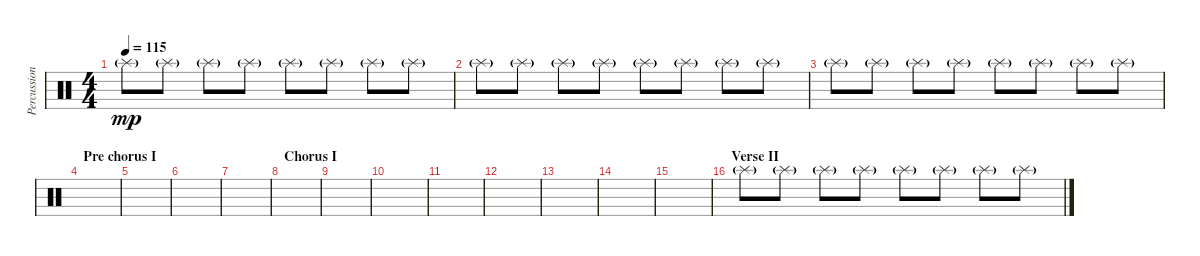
\track ("Percussion - Splash Cymbal" "Percussion") {instrument percussion}
\staff {score}
\articulation defaults
\ts (4 4)
\tempo 115
\clef neutral
\ks c "Splash (hit)"{g}.8{dy mp} "Splash (hit)"{g}.8 "Splash (hit)"{g}.8 "Splash (hit)"{g}.8 "Splash (hit)"{g}.8 "Splash (hit)"{g}.8 "Splash (hit)"{g}.8 "Splash (hit)"{g}.8
|
"Splash (hit)"{g}.8 "Splash (hit)"{g}.8 "Splash (hit)"{g}.8 "Splash (hit)"{g}.8 "Splash (hit)"{g}.8 "Splash (hit)"{g}.8 "Splash (hit)"{g}.8 "Splash (hit)"{g}.8 |
"Splash (hit)"{g}.8 "Splash (hit)"{g}.8 "Splash (hit)"{g}.8 "Splash (hit)"{g}.8 "Splash (hit)"{g}.8 "Splash (hit)"{g}.8 "Splash (hit)"{g}.8 "Splash (hit)"{g}.8 |
\section ("" "Pre chorus I")
|
|
|
|
\section ("" "Chorus I")
|
|
|
|
|
|
|
|
\section ("" "Verse II")
"Splash (hit)"{g}.8 "Splash (hit)"{g}.8 "Splash (hit)"{g}.8 "Splash (hit)"{g}.8 "Splash (hit)"{g}.8 "Splash (hit)"{g}.8 "Splash (hit)"{g}.8 "Splash (hit)"{g}.8
